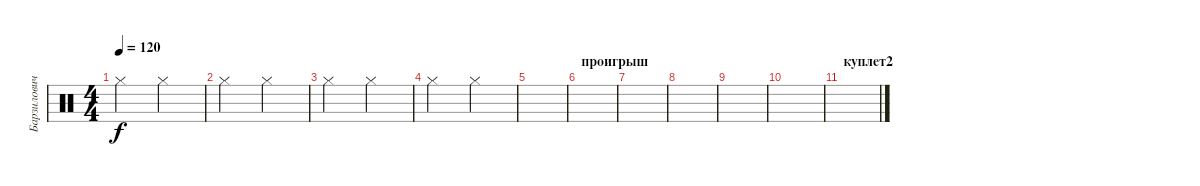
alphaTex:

\track ("Барзилович" "Барзилович") {instrument percussion}
\staff {score}
\articulation defaults
\ts (4 4)
\tempo 120
\clef neutral
\ks c "Hi-Hat (closed)".2{dy f} "Hi-Hat (closed)".2
|
"Hi-Hat (closed)".2 "Hi-Hat (closed)".2 |
"Hi-Hat (closed)".2 "Hi-Hat (closed)".2 |
"Hi-Hat (closed)".2 "Hi-Hat (closed)".2 |
|
\section ("" "проигрыш")
|
|
|
|
|
\section ("" "куплет2")
